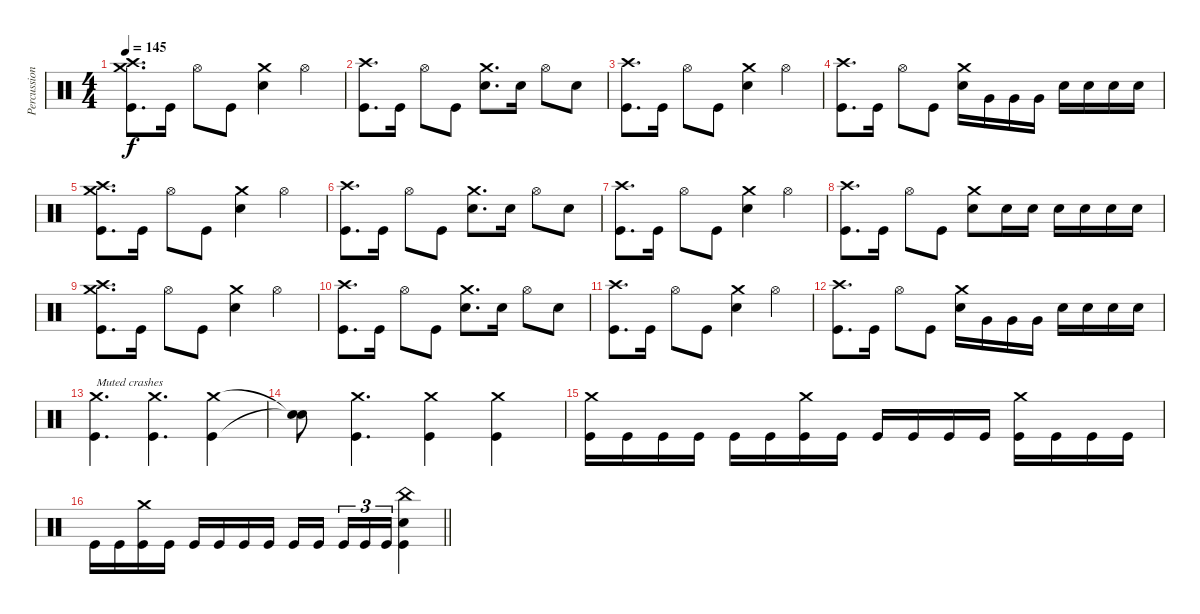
\track ("Percussion" "Percussion") {instrument percussion}
\staff {score}
\articulation defaults
\ts (4 4)
\tempo 145
\clef neutral
\ks c
("Crash high (hit)" "Crash medium (hit)" "Kick (hit)").8{d dy f} "Kick (hit)".16 "Hi-Hat (open)".8 "Kick (hit)".8 ("Crash medium (hit)" "Electric Snare (hit)").4 "Hi-Hat (open)".4 |
("Crash high (hit)" "Kick (hit)").8{d} "Kick (hit)".16 "Hi-Hat (open)".8 "Kick (hit)".8 ("Crash medium (hit)" "Electric Snare (hit)").8{d} "Electric Snare (hit)".16 "Hi-Hat (open)".8 "Electric Snare (hit)".8 |
("Crash high (hit)" "Kick (hit)").8{d} "Kick (hit)".16 "Hi-Hat (open)".8 "Kick (hit)".8 ("Crash medium (hit)" "Electric Snare (hit)").4 "Hi-Hat (open)".4 |
("Crash high (hit)" "Kick (hit)").8{d} "Kick (hit)".16 "Hi-Hat (open)".8 "Kick (hit)".8 ("Crash medium (hit)" "Electric Snare (hit)").16 "Very Low Tom (hit)".16 "Very Low Tom (hit)".16 "Very Low Tom (hit)".16 "Electric Snare (hit)".16 "Electric Snare (hit)".16 "Electric Snare (hit)".16 "Electric Snare (hit)".16 |
("Crash high (hit)" "Crash medium (hit)" "Kick (hit)").8{d} "Kick (hit)".16 "Hi-Hat (open)".8 "Kick (hit)".8 ("Crash medium (hit)" "Electric Snare (hit)").4 "Hi-Hat (open)".4 |
("Crash high (hit)" "Kick (hit)").8{d} "Kick (hit)".16 "Hi-Hat (open)".8 "Kick (hit)".8 ("Crash medium (hit)" "Electric Snare (hit)").8{d} "Electric Snare (hit)".16 "Hi-Hat (open)".8 "Electric Snare (hit)".8 |
("Crash high (hit)" "Kick (hit)").8{d} "Kick (hit)".16 "Hi-Hat (open)".8 "Kick (hit)".8 ("Crash medium (hit)" "Electric Snare (hit)").4 "Hi-Hat (open)".4 |
("Crash high (hit)" "Kick (hit)").8{d} "Kick (hit)".16 "Hi-Hat (open)".8 "Kick (hit)".8 ("Crash medium (hit)" "Electric Snare (hit)").8 "Electric Snare (hit)".16 "Electric Snare (hit)".16 "Electric Snare (hit)".16 "Electric Snare (hit)".16 "Electric Snare (hit)".16 "Electric Snare (hit)".16 |
("Crash high (hit)" "Crash medium (hit)" "Kick (hit)").8{d} "Kick (hit)".16 "Hi-Hat (open)".8 "Kick (hit)".8 ("Crash medium (hit)" "Electric Snare (hit)").4 "Hi-Hat (open)".4 |
("Crash high (hit)" "Kick (hit)").8{d} "Kick (hit)".16 "Hi-Hat (open)".8 "Kick (hit)".8 ("Crash medium (hit)" "Electric Snare (hit)").8{d} "Electric Snare (hit)".16 "Hi-Hat (open)".8 "Electric Snare (hit)".8 |
("Crash high (hit)" "Kick (hit)").8{d} "Kick (hit)".16 "Hi-Hat (open)".8 "Kick (hit)".8 ("Crash medium (hit)" "Electric Snare (hit)").4 "Hi-Hat (open)".4 |
("Crash high (hit)" "Kick (hit)").8{d} "Kick (hit)".16 "Hi-Hat (open)".8 "Kick (hit)".8 ("Crash medium (hit)" "Electric Snare (hit)").16 "Very Low Tom (hit)".16 "Very Low Tom (hit)".16 "Very Low Tom (hit)".16 "Electric Snare (hit)".16 "Electric Snare (hit)".16 "Electric Snare (hit)".16 "Electric Snare (hit)".16 |
("Crash medium (hit)" "Kick (hit)").4{d txt "Muted crashes"} ("Crash medium (hit)" "Kick (hit)").4{d} ("Crash medium (hit)" "Kick (hit)").4 |
("Snare (hit)"{t} "Snare (hit)"{t}).8 ("Crash medium (hit)" "Kick (hit)").4{d} ("Crash medium (hit)" "Kick (hit)").4 ("Crash medium (hit)" "Kick (hit)").4 |
("Crash medium (hit)" "Kick (hit)").16 "Kick (hit)".16 "Kick (hit)".16 "Kick (hit)".16 "Kick (hit)".16 "Kick (hit)".16 ("Crash medium (hit)" "Kick (hit)").16 "Kick (hit)".16 "Kick (hit)".16 "Kick (hit)".16 "Kick (hit)".16 "Kick (hit)".16 ("Crash medium (hit)" "Kick (hit)").16 "Kick (hit)".16 "Kick (hit)".16 "Kick (hit)".16 |
\barLineRight lightlight "Kick (hit)".16 "Kick (hit)".16
("Crash medium (hit)" "Kick (hit)").16 "Kick (hit)".16 "Kick (hit)".16 "Kick (hit)".16 "Kick (hit)".16 "Kick (hit)".16 "Kick (hit)".16 "Kick (hit)".16{beam splitsecondary} "Kick (hit)".16{tu (3 2)} "Kick (hit)".16{tu (3 2)} "Kick (hit)".16{tu (3 2)} ("China (hit)" "Electric Snare (hit)" "Kick (hit)").4
